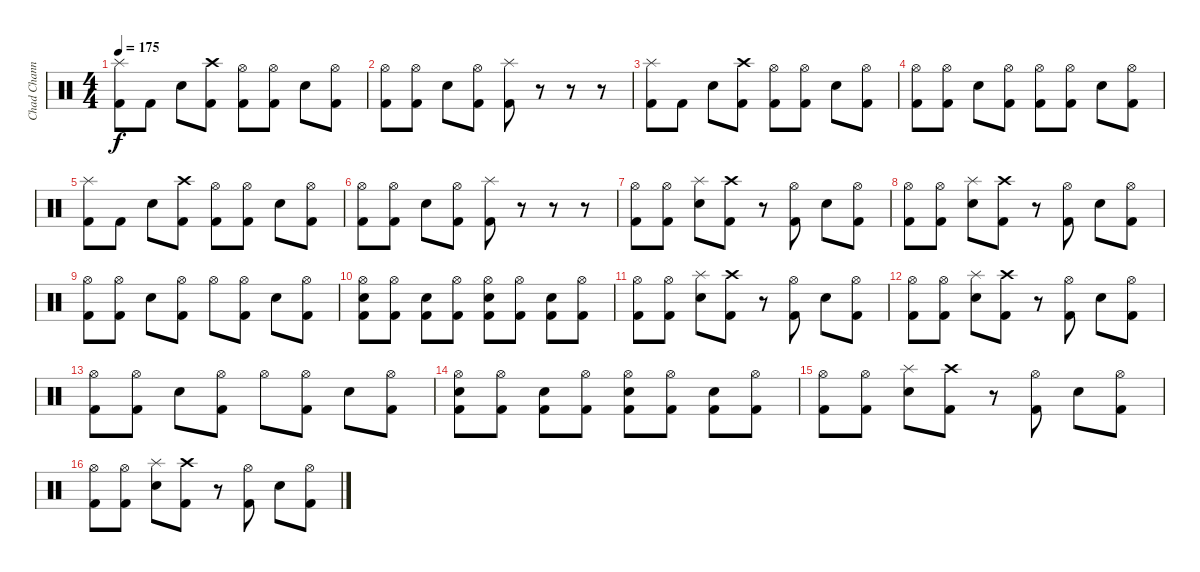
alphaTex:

\track ("Chad Channing" "Chad Chann") {instrument percussion}
\staff {score}
\articulation defaults
\ts (4 4)
\tempo 175
\clef neutral
\ks c
("Splash (hit)" "Kick (hit) 2").8{dy f} "Kick (hit) 2".8 "Snare (hit) 2".8 ("Crash high (hit)" "Kick (hit) 2").8 ("Hi-Hat (open)" "Kick (hit) 2").8 ("Hi-Hat (open)" "Kick (hit) 2").8 "Snare (hit) 2".8 ("Hi-Hat (open)" "Kick (hit) 2").8 |
("Hi-Hat (open)" "Kick (hit) 2").8 ("Hi-Hat (open)" "Kick (hit) 2").8 "Snare (hit) 2".8 ("Hi-Hat (open)" "Kick (hit) 2").8 ("Splash (hit)" "Kick (hit) 2").8 r.8 r.8 r.8 |
("Splash (hit)" "Kick (hit) 2").8 "Kick (hit) 2".8 "Snare (hit) 2".8 ("Crash high (hit)" "Kick (hit) 2").8 ("Hi-Hat (open)" "Kick (hit) 2").8 ("Hi-Hat (open)" "Kick (hit) 2").8 "Snare (hit) 2".8 ("Hi-Hat (open)" "Kick (hit) 2").8 |
("Hi-Hat (open)" "Kick (hit) 2").8 ("Hi-Hat (open)" "Kick (hit) 2").8 "Snare (hit) 2".8 ("Hi-Hat (open)" "Kick (hit) 2").8 ("Hi-Hat (open)" "Kick (hit) 2").8 ("Hi-Hat (open)" "Kick (hit) 2").8 "Snare (hit) 2".8 ("Hi-Hat (open)" "Kick (hit) 2").8 |
("Splash (hit)" "Kick (hit) 2").8 "Kick (hit) 2".8 "Snare (hit) 2".8 ("Crash high (hit)" "Kick (hit) 2").8 ("Hi-Hat (open)" "Kick (hit) 2").8 ("Hi-Hat (open)" "Kick (hit) 2").8 "Snare (hit) 2".8 ("Hi-Hat (open)" "Kick (hit) 2").8 |
("Hi-Hat (open)" "Kick (hit) 2").8 ("Hi-Hat (open)" "Kick (hit) 2").8 "Snare (hit) 2".8 ("Hi-Hat (open)" "Kick (hit) 2").8 ("Splash (hit)" "Kick (hit) 2").8 r.8 r.8 r.8 |
("Hi-Hat (open)" "Kick (hit) 2").8 ("Hi-Hat (open)" "Kick (hit) 2").8 ("Splash (hit)" "Snare (hit) 2").8 ("Crash high (hit)" "Kick (hit) 2").8 r.8 ("Hi-Hat (open)" "Kick (hit) 2").8 "Snare (hit) 2".8 ("Hi-Hat (open)" "Kick (hit) 2").8 |
("Hi-Hat (open)" "Kick (hit) 2").8 ("Hi-Hat (open)" "Kick (hit) 2").8 ("Splash (hit)" "Snare (hit) 2").8 ("Crash high (hit)" "Kick (hit) 2").8 r.8 ("Hi-Hat (open)" "Kick (hit) 2").8 "Snare (hit) 2".8 ("Hi-Hat (open)" "Kick (hit) 2").8 |
("Hi-Hat (open)" "Kick (hit) 2").8 ("Hi-Hat (open)" "Kick (hit) 2").8 "Snare (hit) 2".8 ("Hi-Hat (open)" "Kick (hit) 2").8 "Hi-Hat (open)".8 ("Hi-Hat (open)" "Kick (hit) 2").8 "Snare (hit) 2".8 ("Hi-Hat (open)" "Kick (hit) 2").8 |
("Hi-Hat (open)" "Snare (hit) 2" "Kick (hit) 2").8 ("Hi-Hat (open)" "Kick (hit) 2").8 ("Snare (hit) 2" "Kick (hit) 2").8 ("Hi-Hat (open)" "Kick (hit) 2").8 ("Hi-Hat (open)" "Snare (hit) 2" "Kick (hit) 2").8 ("Hi-Hat (open)" "Kick (hit) 2").8 ("Snare (hit) 2" "Kick (hit) 2").8 ("Hi-Hat (open)" "Kick (hit) 2").8 |
("Hi-Hat (open)" "Kick (hit) 2").8 ("Hi-Hat (open)" "Kick (hit) 2").8 ("Splash (hit)" "Snare (hit) 2").8 ("Crash high (hit)" "Kick (hit) 2").8 r.8 ("Hi-Hat (open)" "Kick (hit) 2").8 "Snare (hit) 2".8 ("Hi-Hat (open)" "Kick (hit) 2").8 |
("Hi-Hat (open)" "Kick (hit) 2").8 ("Hi-Hat (open)" "Kick (hit) 2").8 ("Splash (hit)" "Snare (hit) 2").8 ("Crash high (hit)" "Kick (hit) 2").8 r.8 ("Hi-Hat (open)" "Kick (hit) 2").8 "Snare (hit) 2".8 ("Hi-Hat (open)" "Kick (hit) 2").8 |
("Hi-Hat (open)" "Kick (hit) 2").8 ("Hi-Hat (open)" "Kick (hit) 2").8 "Snare (hit) 2".8 ("Hi-Hat (open)" "Kick (hit) 2").8 "Hi-Hat (open)".8 ("Hi-Hat (open)" "Kick (hit) 2").8 "Snare (hit) 2".8 ("Hi-Hat (open)" "Kick (hit) 2").8 |
("Hi-Hat (open)" "Snare (hit) 2" "Kick (hit) 2").8 ("Hi-Hat (open)" "Kick (hit) 2").8 ("Snare (hit) 2" "Kick (hit) 2").8 ("Hi-Hat (open)" "Kick (hit) 2").8 ("Hi-Hat (open)" "Snare (hit) 2" "Kick (hit) 2").8 ("Hi-Hat (open)" "Kick (hit) 2").8 ("Snare (hit) 2" "Kick (hit) 2").8 ("Hi-Hat (open)" "Kick (hit) 2").8 |
("Hi-Hat (open)" "Kick (hit) 2").8 ("Hi-Hat (open)" "Kick (hit) 2").8 ("Splash (hit)" "Snare (hit) 2").8 ("Crash high (hit)" "Kick (hit) 2").8 r.8 ("Hi-Hat (open)" "Kick (hit) 2").8 "Snare (hit) 2".8 ("Hi-Hat (open)" "Kick (hit) 2").8 |
("Hi-Hat (open)" "Kick (hit) 2").8 ("Hi-Hat (open)" "Kick (hit) 2").8 ("Splash (hit)" "Snare (hit) 2").8 ("Crash high (hit)" "Kick (hit) 2").8 r.8 ("Hi-Hat (open)" "Kick (hit) 2").8 "Snare (hit) 2".8 ("Hi-Hat (open)" "Kick (hit) 2").8
